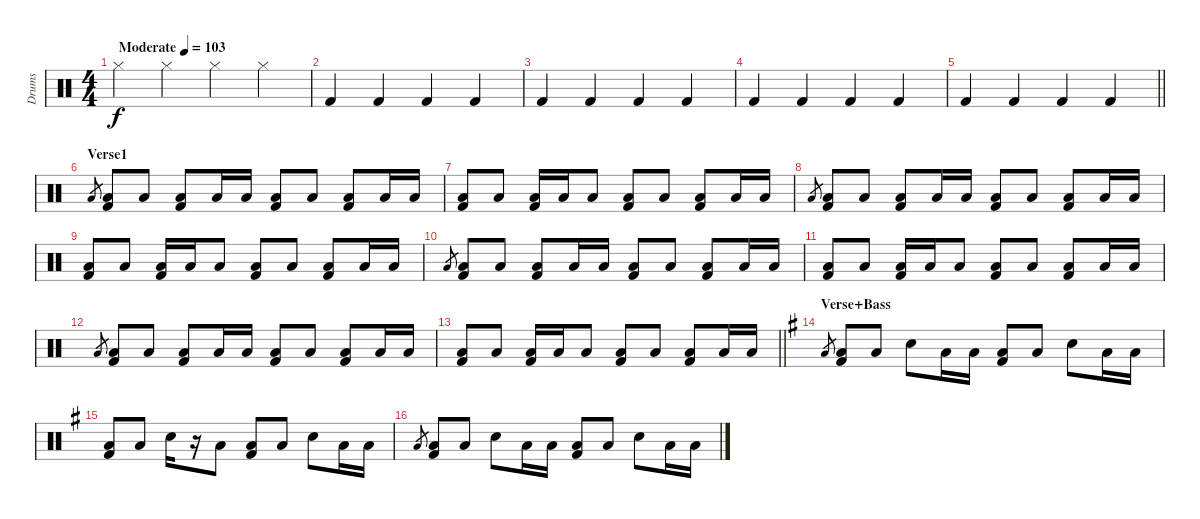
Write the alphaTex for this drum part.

\track ("Drums" "Drums") {instrument percussion}
\staff {score}
\articulation defaults
\ts (4 4)
\tempo (103 "Moderate")
\clef neutral
\ks c "Hi-Hat (closed)".4{dy f} "Hi-Hat (closed)".4 "Hi-Hat (closed)".4 "Hi-Hat (closed)".4
|
"Kick (hit) 2".4 "Kick (hit) 2".4 "Kick (hit) 2".4 "Kick (hit) 2".4 |
"Kick (hit) 2".4 "Kick (hit) 2".4 "Kick (hit) 2".4 "Kick (hit) 2".4 |
"Kick (hit) 2".4 "Kick (hit) 2".4 "Kick (hit) 2".4 "Kick (hit) 2".4 |
\barLineRight lightlight "Kick (hit) 2".4 "Kick (hit) 2".4 "Kick (hit) 2".4 "Kick (hit) 2".4
|
\section ("" "Verse1")
"Low Floor Tom (hit)".8{gr} ("Low Floor Tom (hit)" "Kick (hit) 2").8 "Low Floor Tom (hit)".8 ("Low Floor Tom (hit)" "Kick (hit) 2").8 "Low Floor Tom (hit)".16 "Low Floor Tom (hit)".16 ("Low Floor Tom (hit)" "Kick (hit) 2").8 "Low Floor Tom (hit)".8 ("Low Floor Tom (hit)" "Kick (hit) 2").8 "Low Floor Tom (hit)".16 "Low Floor Tom (hit)".16 |
("Low Floor Tom (hit)" "Kick (hit) 2").8 "Low Floor Tom (hit)".8 ("Low Floor Tom (hit)" "Kick (hit) 2").16 "Low Floor Tom (hit)".16 "Low Floor Tom (hit)".8 ("Low Floor Tom (hit)" "Kick (hit) 2").8 "Low Floor Tom (hit)".8 ("Low Floor Tom (hit)" "Kick (hit) 2").8 "Low Floor Tom (hit)".16 "Low Floor Tom (hit)".16 |
"Low Floor Tom (hit)".8{gr} ("Low Floor Tom (hit)" "Kick (hit) 2").8 "Low Floor Tom (hit)".8 ("Low Floor Tom (hit)" "Kick (hit) 2").8 "Low Floor Tom (hit)".16 "Low Floor Tom (hit)".16 ("Low Floor Tom (hit)" "Kick (hit) 2").8 "Low Floor Tom (hit)".8 ("Low Floor Tom (hit)" "Kick (hit) 2").8 "Low Floor Tom (hit)".16 "Low Floor Tom (hit)".16 |
("Low Floor Tom (hit)" "Kick (hit) 2").8 "Low Floor Tom (hit)".8 ("Low Floor Tom (hit)" "Kick (hit) 2").16 "Low Floor Tom (hit)".16 "Low Floor Tom (hit)".8 ("Low Floor Tom (hit)" "Kick (hit) 2").8 "Low Floor Tom (hit)".8 ("Low Floor Tom (hit)" "Kick (hit) 2").8 "Low Floor Tom (hit)".16 "Low Floor Tom (hit)".16 |
"Low Floor Tom (hit)".8{gr} ("Low Floor Tom (hit)" "Kick (hit) 2").8 "Low Floor Tom (hit)".8 ("Low Floor Tom (hit)" "Kick (hit) 2").8 "Low Floor Tom (hit)".16 "Low Floor Tom (hit)".16 ("Low Floor Tom (hit)" "Kick (hit) 2").8 "Low Floor Tom (hit)".8 ("Low Floor Tom (hit)" "Kick (hit) 2").8 "Low Floor Tom (hit)".16 "Low Floor Tom (hit)".16 |
("Low Floor Tom (hit)" "Kick (hit) 2").8 "Low Floor Tom (hit)".8 ("Low Floor Tom (hit)" "Kick (hit) 2").16 "Low Floor Tom (hit)".16 "Low Floor Tom (hit)".8 ("Low Floor Tom (hit)" "Kick (hit) 2").8 "Low Floor Tom (hit)".8 ("Low Floor Tom (hit)" "Kick (hit) 2").8 "Low Floor Tom (hit)".16 "Low Floor Tom (hit)".16 |
"Low Floor Tom (hit)".8{gr} ("Low Floor Tom (hit)" "Kick (hit) 2").8 "Low Floor Tom (hit)".8 ("Low Floor Tom (hit)" "Kick (hit) 2").8 "Low Floor Tom (hit)".16 "Low Floor Tom (hit)".16 ("Low Floor Tom (hit)" "Kick (hit) 2").8 "Low Floor Tom (hit)".8 ("Low Floor Tom (hit)" "Kick (hit) 2").8 "Low Floor Tom (hit)".16 "Low Floor Tom (hit)".16 |
\barLineRight lightlight
("Low Floor Tom (hit)" "Kick (hit) 2").8 "Low Floor Tom (hit)".8 ("Low Floor Tom (hit)" "Kick (hit) 2").16 "Low Floor Tom (hit)".16 "Low Floor Tom (hit)".8 ("Low Floor Tom (hit)" "Kick (hit) 2").8 "Low Floor Tom (hit)".8 ("Low Floor Tom (hit)" "Kick (hit) 2").8 "Low Floor Tom (hit)".16 "Low Floor Tom (hit)".16 |
\section ("" "Verse+Bass")
\ks eminor "Low Floor Tom (hit)".8{gr}
("Low Floor Tom (hit)" "Kick (hit) 2").8 "Low Floor Tom (hit)".8 "Electric Snare (hit)".8 "Low Floor Tom (hit)".16 "Low Floor Tom (hit)".16 ("Low Floor Tom (hit)" "Kick (hit) 2").8 "Low Floor Tom (hit)".8 "Electric Snare (hit)".8 "Low Floor Tom (hit)".16 "Low Floor Tom (hit)".16 |
("Low Floor Tom (hit)" "Kick (hit) 2").8 "Low Floor Tom (hit)".8 "Electric Snare (hit)".16 r.16 "Low Floor Tom (hit)".8 ("Low Floor Tom (hit)" "Kick (hit) 2").8 "Low Floor Tom (hit)".8 "Electric Snare (hit)".8 "Low Floor Tom (hit)".16 "Low Floor Tom (hit)".16 |
"Low Floor Tom (hit)".8{gr} ("Low Floor Tom (hit)" "Kick (hit) 2").8 "Low Floor Tom (hit)".8 "Electric Snare (hit)".8 "Low Floor Tom (hit)".16 "Low Floor Tom (hit)".16 ("Low Floor Tom (hit)" "Kick (hit) 2").8 "Low Floor Tom (hit)".8 "Electric Snare (hit)".8 "Low Floor Tom (hit)".16 "Low Floor Tom (hit)".16
